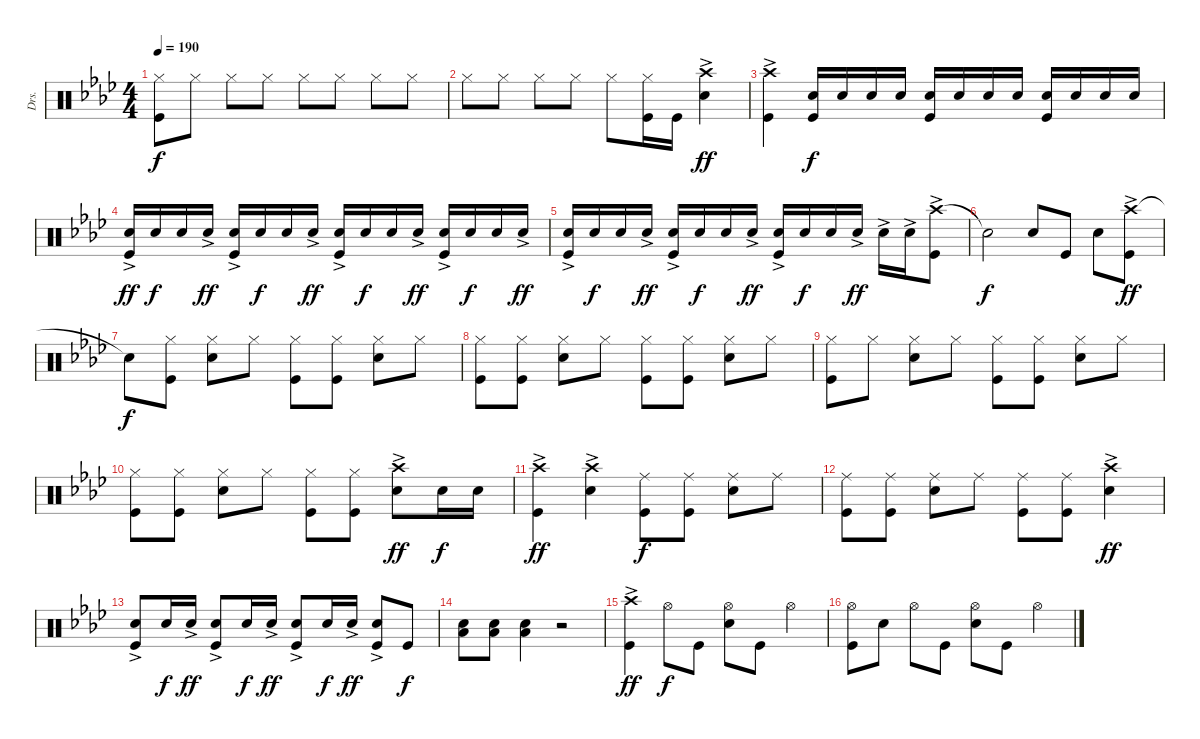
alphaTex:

\track ("Drs." "Drs.") {instrument percussion}
\staff {score}
\articulation defaults
\ts (4 4)
\tempo 190
\clef neutral
\ks ab
("Hi-Hat (closed)" "Kick (hit)").8{dy f} "Hi-Hat (closed)".8 "Hi-Hat (closed)".8 "Hi-Hat (closed)".8 "Hi-Hat (closed)".8 "Hi-Hat (closed)".8 "Hi-Hat (closed)".8 "Hi-Hat (closed)".8 |
"Hi-Hat (closed)".8 "Hi-Hat (closed)".8 "Hi-Hat (closed)".8 "Hi-Hat (closed)".8 "Hi-Hat (closed)".8 ("Hi-Hat (closed)" "Kick (hit)").16 "Kick (hit)".16 ("Crash high (hit)"{ac} "Snare (hit) 2").4{dy ff} |
("Crash high (hit)"{ac} "Kick (hit)").4 ("Snare (hit) 2" "Kick (hit)").16{dy f} "Snare (hit) 2".16 "Snare (hit) 2".16 "Snare (hit) 2".16 ("Snare (hit) 2" "Kick (hit)").16 "Snare (hit) 2".16 "Snare (hit) 2".16 "Snare (hit) 2".16 ("Snare (hit) 2" "Kick (hit)").16 "Snare (hit) 2".16 "Snare (hit) 2".16 "Snare (hit) 2".16 |
("Snare (hit) 2"{ac} "Kick (hit)").16{dy ff} "Snare (hit) 2".16{dy f} "Snare (hit) 2".16 "Snare (hit) 2"{ac}.16{dy ff} ("Snare (hit) 2"{ac} "Kick (hit)").16 "Snare (hit) 2".16{dy f} "Snare (hit) 2".16 "Snare (hit) 2"{ac}.16{dy ff} ("Snare (hit) 2"{ac} "Kick (hit)").16 "Snare (hit) 2".16{dy f} "Snare (hit) 2".16 "Snare (hit) 2"{ac}.16{dy ff} ("Snare (hit) 2"{ac} "Kick (hit)").16 "Snare (hit) 2".16{dy f} "Snare (hit) 2".16 "Snare (hit) 2"{ac}.16{dy ff} |
("Snare (hit) 2"{ac} "Kick (hit)").16 "Snare (hit) 2".16{dy f} "Snare (hit) 2".16 "Snare (hit) 2"{ac}.16{dy ff} ("Snare (hit) 2"{ac} "Kick (hit)").16 "Snare (hit) 2".16{dy f} "Snare (hit) 2".16 "Snare (hit) 2"{ac}.16{dy ff} ("Snare (hit) 2"{ac} "Kick (hit)").16 "Snare (hit) 2".16{dy f} "Snare (hit) 2".16 "Snare (hit) 2"{ac}.16{dy ff} "Snare (hit) 2"{ac}.16 "Snare (hit) 2"{ac}.16 ("Crash high (hit)"{ac} "Kick (hit)").8 |
"Snare (hit)"{t}.2{dy f} "Snare (hit) 2".8 "Kick (hit)".8 "Snare (hit) 2".8 ("Crash high (hit)"{ac} "Kick (hit)").8{dy ff} |
"Snare (hit)"{t}.8{dy f} ("Hi-Hat (closed)" "Kick (hit)").8 ("Hi-Hat (closed)" "Snare (hit) 2").8 "Hi-Hat (closed)".8 ("Hi-Hat (closed)" "Kick (hit)").8 ("Hi-Hat (closed)" "Kick (hit)").8 ("Hi-Hat (closed)" "Snare (hit) 2").8 "Hi-Hat (closed)".8 |
("Hi-Hat (closed)" "Kick (hit)").8 ("Hi-Hat (closed)" "Kick (hit)").8 ("Hi-Hat (closed)" "Snare (hit) 2").8 "Hi-Hat (closed)".8 ("Hi-Hat (closed)" "Kick (hit)").8 ("Hi-Hat (closed)" "Kick (hit)").8 ("Hi-Hat (closed)" "Snare (hit) 2").8 "Hi-Hat (closed)".8 |
("Hi-Hat (closed)" "Kick (hit)").8 "Hi-Hat (closed)".8 ("Hi-Hat (closed)" "Snare (hit) 2").8 "Hi-Hat (closed)".8 ("Hi-Hat (closed)" "Kick (hit)").8 ("Hi-Hat (closed)" "Kick (hit)").8 ("Hi-Hat (closed)" "Snare (hit) 2").8 "Hi-Hat (closed)".8 |
("Hi-Hat (closed)" "Kick (hit)").8 ("Hi-Hat (closed)" "Kick (hit)").8 ("Hi-Hat (closed)" "Snare (hit) 2").8 "Hi-Hat (closed)".8 ("Hi-Hat (closed)" "Kick (hit)").8 ("Hi-Hat (closed)" "Kick (hit)").8 ("Crash high (hit)"{ac} "Snare (hit) 2").8{dy ff} "Snare (hit) 2".16{dy f} "Snare (hit) 2".16 |
("Crash high (hit)"{ac} "Kick (hit)").4{dy ff} ("Crash high (hit)"{ac} "Snare (hit) 2").4 ("Ride (middle)" "Kick (hit)").8{dy f} ("Ride (middle)" "Kick (hit)").8 ("Ride (middle)" "Snare (hit) 2").8 "Ride (middle)".8 |
("Ride (middle)" "Kick (hit)").8 ("Ride (middle)" "Kick (hit)").8 ("Ride (middle)" "Snare (hit) 2").8 "Ride (middle)".8 ("Ride (middle)" "Kick (hit)").8 ("Ride (middle)" "Kick (hit)").8 ("Crash high (hit)"{ac} "Snare (hit) 2").4{dy ff} |
("Snare (hit) 2"{ac} "Kick (hit)").8 "Snare (hit) 2".16{dy f} "Snare (hit) 2"{ac}.16{dy ff} ("Snare (hit) 2"{ac} "Kick (hit)").8 "Snare (hit) 2".16{dy f} "Snare (hit) 2"{ac}.16{dy ff} ("Snare (hit) 2"{ac} "Kick (hit)").8 "Snare (hit) 2".16{dy f} "Snare (hit) 2"{ac}.16{dy ff} ("Snare (hit) 2"{ac} "Kick (hit)").8 "Kick (hit)".8{dy f} |
("Snare (hit) 2" "Low Tom (hit)").8 ("Snare (hit) 2" "Low Tom (hit)").8 ("Snare (hit) 2" "Low Tom (hit)").4 r.2 |
("Crash high (hit)"{ac} "Kick (hit)").4{dy ff} "Hi-Hat (open)".8{dy f} "Kick (hit)".8 ("Hi-Hat (open)" "Snare (hit) 2").8 "Kick (hit)".8 "Hi-Hat (open)".4 |
("Hi-Hat (open)" "Kick (hit)").8 "Snare (hit) 2".8 "Hi-Hat (open)".8 "Kick (hit)".8 ("Hi-Hat (open)" "Snare (hit) 2").8 "Kick (hit)".8 "Hi-Hat (open)".4
